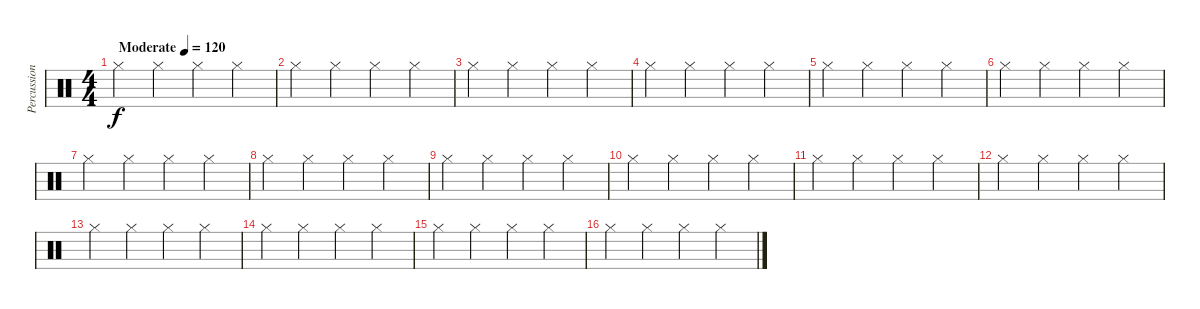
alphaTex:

\track ("Percussion" "Percussion") {instrument percussion}
\staff {score}
\articulation defaults
\ts (4 4)
\tempo (120 "Moderate")
\clef neutral
\ks c "Hi-Hat (closed)".4{dy f} "Hi-Hat (closed)".4 "Hi-Hat (closed)".4 "Hi-Hat (closed)".4
|
"Hi-Hat (closed)".4 "Hi-Hat (closed)".4 "Hi-Hat (closed)".4 "Hi-Hat (closed)".4 |
"Hi-Hat (closed)".4 "Hi-Hat (closed)".4 "Hi-Hat (closed)".4 "Hi-Hat (closed)".4 |
"Hi-Hat (closed)".4 "Hi-Hat (closed)".4 "Hi-Hat (closed)".4 "Hi-Hat (closed)".4 |
"Hi-Hat (closed)".4 "Hi-Hat (closed)".4 "Hi-Hat (closed)".4 "Hi-Hat (closed)".4 |
"Hi-Hat (closed)".4 "Hi-Hat (closed)".4 "Hi-Hat (closed)".4 "Hi-Hat (closed)".4 |
"Hi-Hat (closed)".4 "Hi-Hat (closed)".4 "Hi-Hat (closed)".4 "Hi-Hat (closed)".4 |
"Hi-Hat (closed)".4 "Hi-Hat (closed)".4 "Hi-Hat (closed)".4 "Hi-Hat (closed)".4 |
"Hi-Hat (closed)".4 "Hi-Hat (closed)".4 "Hi-Hat (closed)".4 "Hi-Hat (closed)".4 |
"Hi-Hat (closed)".4 "Hi-Hat (closed)".4 "Hi-Hat (closed)".4 "Hi-Hat (closed)".4 |
"Hi-Hat (closed)".4 "Hi-Hat (closed)".4 "Hi-Hat (closed)".4 "Hi-Hat (closed)".4 |
"Hi-Hat (closed)".4 "Hi-Hat (closed)".4 "Hi-Hat (closed)".4 "Hi-Hat (closed)".4 |
"Hi-Hat (closed)".4 "Hi-Hat (closed)".4 "Hi-Hat (closed)".4 "Hi-Hat (closed)".4 |
"Hi-Hat (closed)".4 "Hi-Hat (closed)".4 "Hi-Hat (closed)".4 "Hi-Hat (closed)".4 |
"Hi-Hat (closed)".4 "Hi-Hat (closed)".4 "Hi-Hat (closed)".4 "Hi-Hat (closed)".4 |
"Hi-Hat (closed)".4 "Hi-Hat (closed)".4 "Hi-Hat (closed)".4 "Hi-Hat (closed)".4
